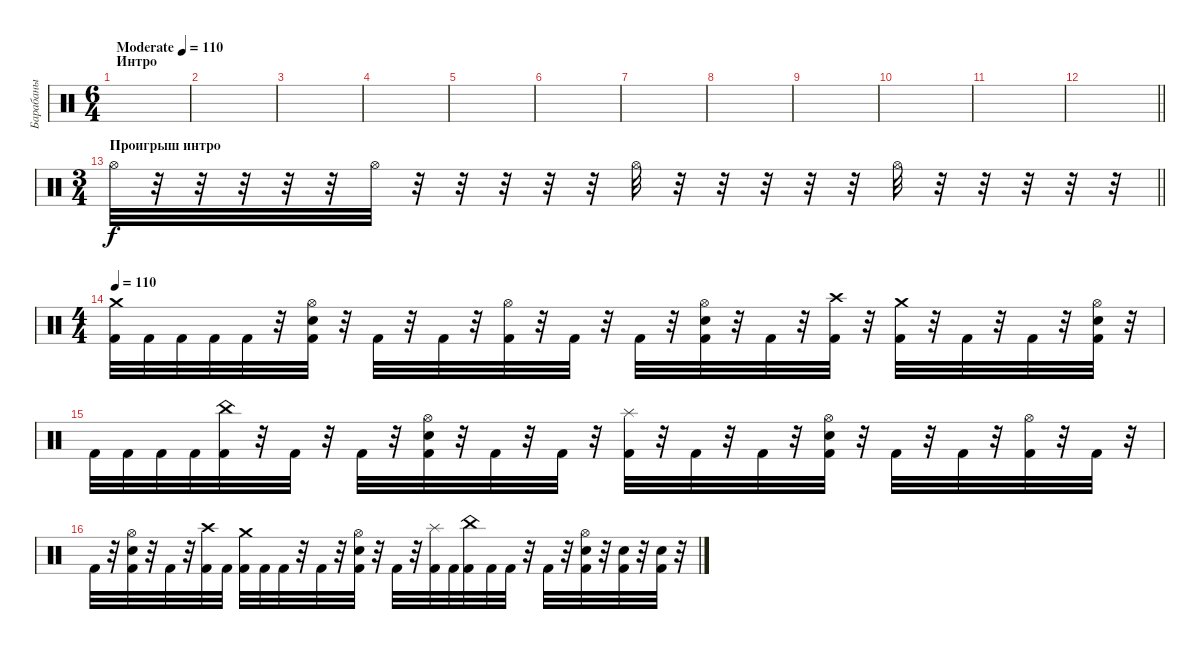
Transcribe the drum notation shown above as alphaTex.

\track ("Барабаны" "Барабаны") {instrument percussion}
\staff {score}
\articulation defaults
\ts (6 4)
\section ("" "Интро")
\tempo (110 "Moderate")
\clef neutral
\ks c
|
|
|
|
|
|
|
|
|
|
|
\barLineRight lightlight
|
\ts (3 4)
\section ("" "Проигрыш интро")
\barLineRight lightlight "Hi-Hat (open)".32
r.32 r.32 r.32 r.32 r.32 "Hi-Hat (open)".32 r.32 r.32 r.32 r.32 r.32 "Hi-Hat (open)".32 r.32 r.32 r.32 r.32 r.32 "Hi-Hat (open)".32 r.32 r.32 r.32 r.32 r.32 |
\ts (4 4)
\tempo 110
("Crash medium (hit)" "Kick (hit) 2").32 "Kick (hit) 2".32 "Kick (hit) 2".32 "Kick (hit) 2".32 "Kick (hit) 2".32 r.32 ("Hi-Hat (open)" "Electric Snare (hit)" "Kick (hit) 2").32 r.32 "Kick (hit) 2".32 r.32 "Kick (hit) 2".32 r.32 ("Hi-Hat (open)" "Kick (hit) 2").32 r.32 "Kick (hit) 2".32 r.32 "Kick (hit) 2".32 r.32 ("Hi-Hat (open)" "Electric Snare (hit)" "Kick (hit) 2").32 r.32 "Kick (hit) 2".32 r.32 ("Crash high (hit)" "Kick (hit) 2").32 r.32 ("Crash medium (hit)" "Kick (hit) 2").32 r.32 "Kick (hit) 2".32 r.32 "Kick (hit) 2".32 r.32 ("Hi-Hat (open)" "Electric Snare (hit)" "Kick (hit) 2").32 r.32 |
"Kick (hit) 2".32 "Kick (hit) 2".32 "Kick (hit) 2".32 "Kick (hit) 2".32 ("China (hit)" "Kick (hit) 2").32 r.32 "Kick (hit) 2".32 r.32 "Kick (hit) 2".32 r.32 ("Hi-Hat (open)" "Electric Snare (hit)" "Kick (hit) 2").32 r.32 "Kick (hit) 2".32 r.32 "Kick (hit) 2".32 r.32 ("Splash (hit)" "Kick (hit) 2").32 r.32 "Kick (hit) 2".32 r.32 "Kick (hit) 2".32 r.32 ("Hi-Hat (open)" "Electric Snare (hit)" "Kick (hit) 2").32 r.32 "Kick (hit) 2".32 r.32 "Kick (hit) 2".32 r.32 ("Hi-Hat (open)" "Kick (hit) 2").32 r.32 "Kick (hit) 2".32 r.32 |
"Kick (hit) 2".32 r.32 ("Hi-Hat (open)" "Electric Snare (hit)" "Kick (hit) 2").32 r.32 "Kick (hit) 2".32 r.32 ("Crash high (hit)" "Kick (hit) 2").32 "Kick (hit) 2".32 ("Crash medium (hit)" "Kick (hit) 2").32 "Kick (hit) 2".32 "Kick (hit) 2".32 r.32 "Kick (hit) 2".32 r.32 ("Hi-Hat (open)" "Electric Snare (hit)" "Kick (hit) 2").32 r.32 "Kick (hit) 2".32 r.32 ("Splash (hit)" "Kick (hit) 2").32 "Kick (hit) 2".32 ("China (hit)" "Kick (hit) 2").32 "Kick (hit) 2".32 "Kick (hit) 2".32 r.32 "Kick (hit) 2".32 r.32 ("Hi-Hat (open)" "Electric Snare (hit)" "Kick (hit) 2").32 r.32 ("Electric Snare (hit)" "Kick (hit) 2").32 r.32 ("Electric Snare (hit)" "Kick (hit) 2").32 r.32
